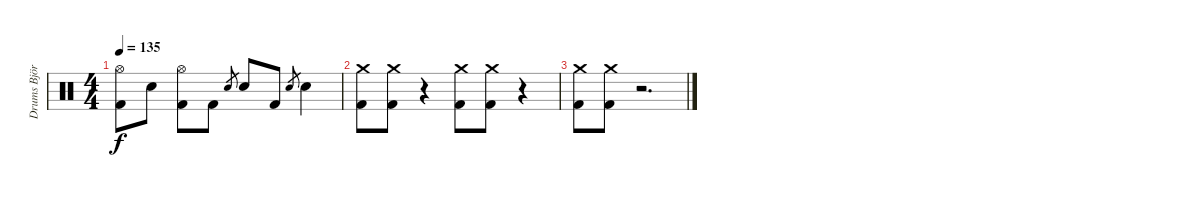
\track ("Drums Björn Fryklund" "Drums Björ") {instrument percussion}
\staff {score}
\articulation defaults
\ts (4 4)
\tempo 135
\clef neutral
\ks c
("Hi-Hat (open)" "Kick (hit) 2").8{dy f} "Electric Snare (hit)".8 ("Hi-Hat (open)" "Kick (hit) 2").8 "Kick (hit) 2".8 "Electric Snare (hit)".8{gr} "Electric Snare (hit)".8 "Kick (hit) 2".8 "Electric Snare (hit)".8{gr} "Electric Snare (hit)".4 |
("Crash medium (hit)" "Kick (hit) 2").8 ("Crash medium (hit)" "Kick (hit) 2").8 r.4 ("Crash medium (hit)" "Kick (hit) 2").8 ("Crash medium (hit)" "Kick (hit) 2").8 r.4 |
("Crash medium (hit)" "Kick (hit) 2").8 ("Crash medium (hit)" "Kick (hit) 2").8 r.2{d}
